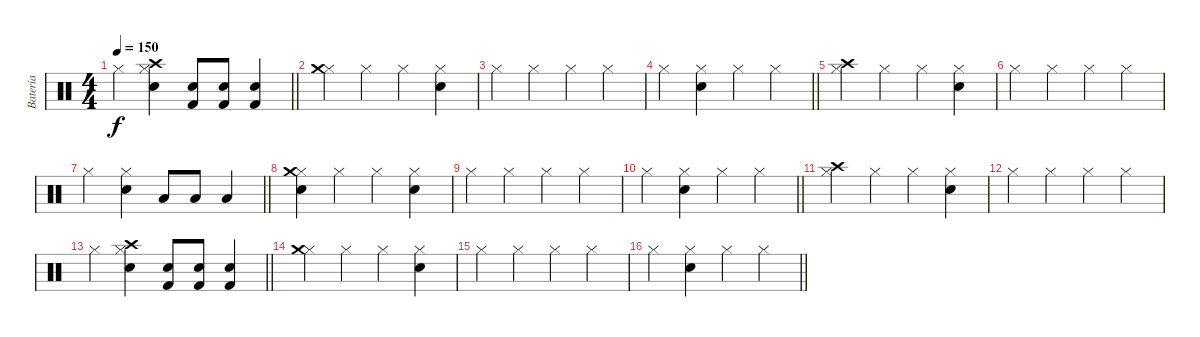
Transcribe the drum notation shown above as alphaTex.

\track ("Batería" "Batería") {instrument percussion}
\staff {score}
\articulation defaults
\ts (4 4)
\tempo 150
\clef neutral
\barLineRight lightlight
\ks c "Hi-Hat (closed)".4{dy f}
("Crash high (hit)" "Hi-Hat (closed)" "Snare (hit) 2").4 ("Snare (hit) 2" "Kick (hit) 2").8 ("Snare (hit) 2" "Kick (hit) 2").8 ("Snare (hit) 2" "Kick (hit) 2").4 |
("Hi-Hat (closed)" "Crash medium (hit)").4 "Hi-Hat (closed)".4 "Hi-Hat (closed)".4 ("Hi-Hat (closed)" "Electric Snare (hit)").4 |
"Hi-Hat (closed)".4 "Hi-Hat (closed)".4 "Hi-Hat (closed)".4 "Hi-Hat (closed)".4 |
\barLineRight lightlight "Hi-Hat (closed)".4
("Hi-Hat (closed)" "Electric Snare (hit)").4 "Hi-Hat (closed)".4 "Hi-Hat (closed)".4 |
("Hi-Hat (closed)" "Crash high (hit)").4 "Hi-Hat (closed)".4 "Hi-Hat (closed)".4 ("Hi-Hat (closed)" "Electric Snare (hit)").4 |
"Hi-Hat (closed)".4 "Hi-Hat (closed)".4 "Hi-Hat (closed)".4 "Hi-Hat (closed)".4 |
\barLineRight lightlight "Hi-Hat (closed)".4
("Hi-Hat (closed)" "Electric Snare (hit)").4 "Low Tom (hit)".8 "Low Tom (hit)".8 "Low Tom (hit)".4 |
\section ("" "")
("Hi-Hat (closed)" "Electric Snare (hit)" "Crash medium (hit)").4 "Hi-Hat (closed)".4 "Hi-Hat (closed)".4 ("Hi-Hat (closed)" "Electric Snare (hit)").4 |
"Hi-Hat (closed)".4 "Hi-Hat (closed)".4 "Hi-Hat (closed)".4 "Hi-Hat (closed)".4 |
\barLineRight lightlight "Hi-Hat (closed)".4
("Hi-Hat (closed)" "Electric Snare (hit)").4 "Hi-Hat (closed)".4 "Hi-Hat (closed)".4 |
("Hi-Hat (closed)" "Crash high (hit)").4 "Hi-Hat (closed)".4 "Hi-Hat (closed)".4 ("Hi-Hat (closed)" "Electric Snare (hit)").4 |
"Hi-Hat (closed)".4 "Hi-Hat (closed)".4 "Hi-Hat (closed)".4 "Hi-Hat (closed)".4 |
\barLineRight lightlight "Hi-Hat (closed)".4
("Crash high (hit)" "Hi-Hat (closed)" "Snare (hit) 2").4 ("Snare (hit) 2" "Kick (hit) 2").8 ("Snare (hit) 2" "Kick (hit) 2").8 ("Snare (hit) 2" "Kick (hit) 2").4 |
("Hi-Hat (closed)" "Crash medium (hit)").4 "Hi-Hat (closed)".4 "Hi-Hat (closed)".4 ("Hi-Hat (closed)" "Electric Snare (hit)").4 |
"Hi-Hat (closed)".4 "Hi-Hat (closed)".4 "Hi-Hat (closed)".4 "Hi-Hat (closed)".4 |
\barLineRight lightlight "Hi-Hat (closed)".4
("Hi-Hat (closed)" "Electric Snare (hit)").4 "Hi-Hat (closed)".4 "Hi-Hat (closed)".4
